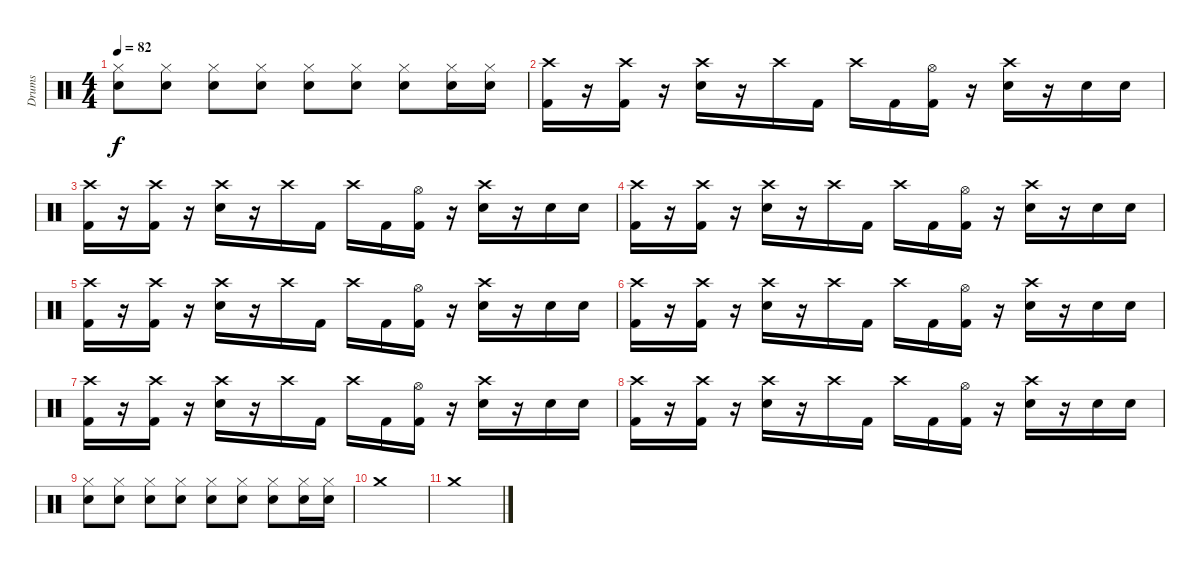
\track ("Drums" "Drums") {instrument percussion}
\staff {score}
\articulation defaults
\ts (4 4)
\tempo 82
\clef neutral
\ks c
("Electric Snare (hit)" "Hi-Hat (closed)").8{dy f} ("Electric Snare (hit)" "Hi-Hat (closed)").8 ("Electric Snare (hit)" "Hi-Hat (closed)").8 ("Electric Snare (hit)" "Hi-Hat (closed)").8 ("Electric Snare (hit)" "Hi-Hat (closed)").8 ("Electric Snare (hit)" "Hi-Hat (closed)").8 ("Electric Snare (hit)" "Hi-Hat (closed)").8 ("Electric Snare (hit)" "Hi-Hat (closed)").16 ("Electric Snare (hit)" "Hi-Hat (closed)").16 |
("Crash high (hit)" "Kick (hit) 2").16 r.16 ("Crash high (hit)" "Kick (hit) 2").16 r.16 ("Crash high (hit)" "Electric Snare (hit)").16 r.16 "Crash high (hit)".16 "Kick (hit) 2".16 "Crash high (hit)".16 "Kick (hit) 2".16 ("Hi-Hat (open)" "Kick (hit) 2").16 r.16 ("Crash high (hit)" "Electric Snare (hit)").16 r.16 "Electric Snare (hit)".16 "Electric Snare (hit)".16 |
("Crash high (hit)" "Kick (hit) 2").16 r.16 ("Crash high (hit)" "Kick (hit) 2").16 r.16 ("Crash high (hit)" "Electric Snare (hit)").16 r.16 "Crash high (hit)".16 "Kick (hit) 2".16 "Crash high (hit)".16 "Kick (hit) 2".16 ("Hi-Hat (open)" "Kick (hit) 2").16 r.16 ("Crash high (hit)" "Electric Snare (hit)").16 r.16 "Electric Snare (hit)".16 "Electric Snare (hit)".16 |
("Crash high (hit)" "Kick (hit) 2").16 r.16 ("Crash high (hit)" "Kick (hit) 2").16 r.16 ("Crash high (hit)" "Electric Snare (hit)").16 r.16 "Crash high (hit)".16 "Kick (hit) 2".16 "Crash high (hit)".16 "Kick (hit) 2".16 ("Hi-Hat (open)" "Kick (hit) 2").16 r.16 ("Crash high (hit)" "Electric Snare (hit)").16 r.16 "Electric Snare (hit)".16 "Electric Snare (hit)".16 |
("Crash high (hit)" "Kick (hit) 2").16 r.16 ("Crash high (hit)" "Kick (hit) 2").16 r.16 ("Crash high (hit)" "Electric Snare (hit)").16 r.16 "Crash high (hit)".16 "Kick (hit) 2".16 "Crash high (hit)".16 "Kick (hit) 2".16 ("Hi-Hat (open)" "Kick (hit) 2").16 r.16 ("Crash high (hit)" "Electric Snare (hit)").16 r.16 "Electric Snare (hit)".16 "Electric Snare (hit)".16 |
("Crash high (hit)" "Kick (hit) 2").16 r.16 ("Crash high (hit)" "Kick (hit) 2").16 r.16 ("Crash high (hit)" "Electric Snare (hit)").16 r.16 "Crash high (hit)".16 "Kick (hit) 2".16 "Crash high (hit)".16 "Kick (hit) 2".16 ("Hi-Hat (open)" "Kick (hit) 2").16 r.16 ("Crash high (hit)" "Electric Snare (hit)").16 r.16 "Electric Snare (hit)".16 "Electric Snare (hit)".16 |
("Crash high (hit)" "Kick (hit) 2").16 r.16 ("Crash high (hit)" "Kick (hit) 2").16 r.16 ("Crash high (hit)" "Electric Snare (hit)").16 r.16 "Crash high (hit)".16 "Kick (hit) 2".16 "Crash high (hit)".16 "Kick (hit) 2".16 ("Hi-Hat (open)" "Kick (hit) 2").16 r.16 ("Crash high (hit)" "Electric Snare (hit)").16 r.16 "Electric Snare (hit)".16 "Electric Snare (hit)".16 |
("Crash high (hit)" "Kick (hit) 2").16 r.16 ("Crash high (hit)" "Kick (hit) 2").16 r.16 ("Crash high (hit)" "Electric Snare (hit)").16 r.16 "Crash high (hit)".16 "Kick (hit) 2".16 "Crash high (hit)".16 "Kick (hit) 2".16 ("Hi-Hat (open)" "Kick (hit) 2").16 r.16 ("Crash high (hit)" "Electric Snare (hit)").16 r.16 "Electric Snare (hit)".16 "Electric Snare (hit)".16 |
("Electric Snare (hit)" "Hi-Hat (closed)").8 ("Electric Snare (hit)" "Hi-Hat (closed)").8 ("Electric Snare (hit)" "Hi-Hat (closed)").8 ("Electric Snare (hit)" "Hi-Hat (closed)").8 ("Electric Snare (hit)" "Hi-Hat (closed)").8 ("Electric Snare (hit)" "Hi-Hat (closed)").8 ("Electric Snare (hit)" "Hi-Hat (closed)").8 ("Electric Snare (hit)" "Hi-Hat (closed)").16 ("Electric Snare (hit)" "Hi-Hat (closed)").16 |
"Crash medium (hit)".1 |
"Crash medium (hit)".1
